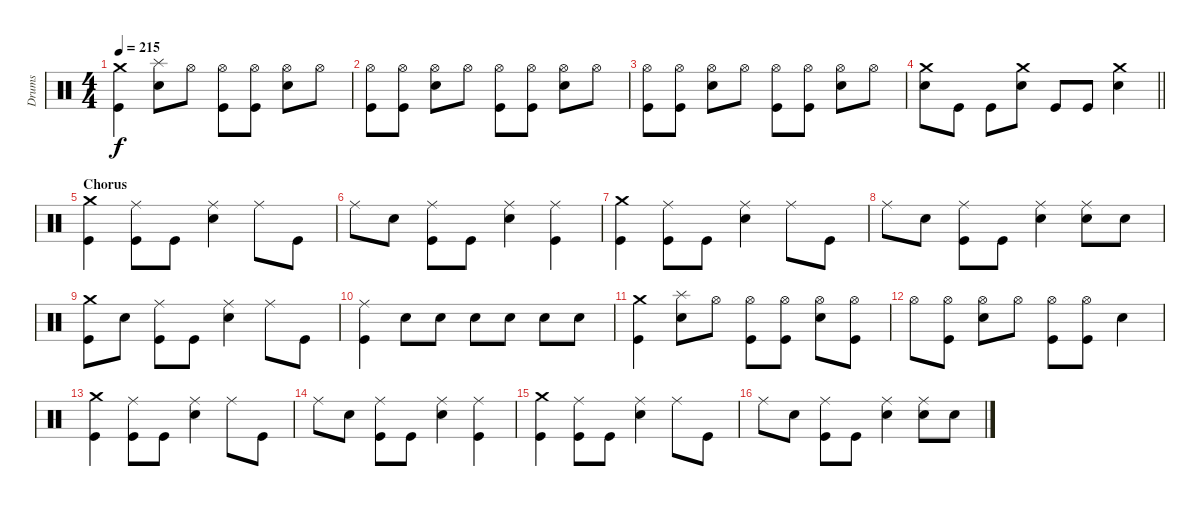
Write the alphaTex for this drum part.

\track ("Drums" "Drums") {instrument percussion}
\staff {score}
\articulation defaults
\ts (4 4)
\tempo 215
\clef neutral
\ks c
("Kick (hit)" "Crash medium (hit)").4{dy f} ("Snare (hit) 2" "Splash (hit)").8 "Hi-Hat (open)".8 ("Kick (hit)" "Hi-Hat (open)").8 ("Kick (hit)" "Hi-Hat (open)").8 ("Snare (hit) 2" "Hi-Hat (open)").8 "Hi-Hat (open)".8 |
("Kick (hit)" "Hi-Hat (open)").8 ("Kick (hit)" "Hi-Hat (open)").8 ("Snare (hit) 2" "Hi-Hat (open)").8 "Hi-Hat (open)".8 ("Kick (hit)" "Hi-Hat (open)").8 ("Kick (hit)" "Hi-Hat (open)").8 ("Snare (hit) 2" "Hi-Hat (open)").8 "Hi-Hat (open)".8 |
("Kick (hit)" "Hi-Hat (open)").8 ("Kick (hit)" "Hi-Hat (open)").8 ("Snare (hit) 2" "Hi-Hat (open)").8 "Hi-Hat (open)".8 ("Kick (hit)" "Hi-Hat (open)").8 ("Kick (hit)" "Hi-Hat (open)").8 ("Snare (hit) 2" "Hi-Hat (open)").8 "Hi-Hat (open)".8 |
\barLineRight lightlight
("Snare (hit) 2" "Crash medium (hit)").8 "Kick (hit)".8 "Kick (hit)".8 ("Snare (hit) 2" "Crash medium (hit)").8 "Kick (hit)".8 "Kick (hit)".8 ("Snare (hit) 2" "Crash medium (hit)").4 |
\section ("" "Chorus")
("Crash medium (hit)" "Kick (hit)").4 ("Kick (hit)" "Ride (middle)").8 "Kick (hit)".8 ("Snare (hit) 2" "Ride (middle)").4 "Ride (middle)".8 "Kick (hit)".8 |
"Ride (middle)".8 "Snare (hit) 2".8 ("Kick (hit)" "Ride (middle)").8 "Kick (hit)".8 ("Snare (hit) 2" "Ride (middle)").4 ("Kick (hit)" "Ride (middle)").4 |
("Crash medium (hit)" "Kick (hit)").4 ("Kick (hit)" "Ride (middle)").8 "Kick (hit)".8 ("Snare (hit) 2" "Ride (middle)").4 "Ride (middle)".8 "Kick (hit)".8 |
"Ride (middle)".8 "Snare (hit) 2".8 ("Kick (hit)" "Ride (middle)").8 "Kick (hit)".8 ("Snare (hit) 2" "Ride (middle)").4 ("Snare (hit) 2" "Ride (middle)").8 "Snare (hit) 2".8 |
("Crash medium (hit)" "Kick (hit)").8 "Snare (hit) 2".8 ("Kick (hit)" "Ride (middle)").8 "Kick (hit)".8 ("Snare (hit) 2" "Ride (middle)").4 "Ride (middle)".8 "Kick (hit)".8 |
("Kick (hit)" "Ride (middle)").4 "Snare (hit) 2".8 "Snare (hit) 2".8 "Snare (hit) 2".8 "Snare (hit) 2".8 "Snare (hit) 2".8 "Snare (hit) 2".8 |
("Kick (hit)" "Crash medium (hit)").4 ("Snare (hit) 2" "Splash (hit)").8 "Hi-Hat (open)".8 ("Kick (hit)" "Hi-Hat (open)").8 ("Kick (hit)" "Hi-Hat (open)").8 ("Snare (hit) 2" "Hi-Hat (open)").8 ("Hi-Hat (open)" "Kick (hit)").8 |
"Hi-Hat (open)".8 ("Kick (hit)" "Hi-Hat (open)").8 ("Snare (hit) 2" "Hi-Hat (open)").8 "Hi-Hat (open)".8 ("Kick (hit)" "Hi-Hat (open)").8 ("Kick (hit)" "Hi-Hat (open)").8 "Snare (hit) 2".4 |
("Crash medium (hit)" "Kick (hit)").4 ("Kick (hit)" "Ride (middle)").8 "Kick (hit)".8 ("Snare (hit) 2" "Ride (middle)").4 "Ride (middle)".8 "Kick (hit)".8 |
"Ride (middle)".8 "Snare (hit) 2".8 ("Kick (hit)" "Ride (middle)").8 "Kick (hit)".8 ("Snare (hit) 2" "Ride (middle)").4 ("Kick (hit)" "Ride (middle)").4 |
("Crash medium (hit)" "Kick (hit)").4 ("Kick (hit)" "Ride (middle)").8 "Kick (hit)".8 ("Snare (hit) 2" "Ride (middle)").4 "Ride (middle)".8 "Kick (hit)".8 |
"Ride (middle)".8 "Snare (hit) 2".8 ("Kick (hit)" "Ride (middle)").8 "Kick (hit)".8 ("Snare (hit) 2" "Ride (middle)").4 ("Snare (hit) 2" "Ride (middle)").8 "Snare (hit) 2".8
